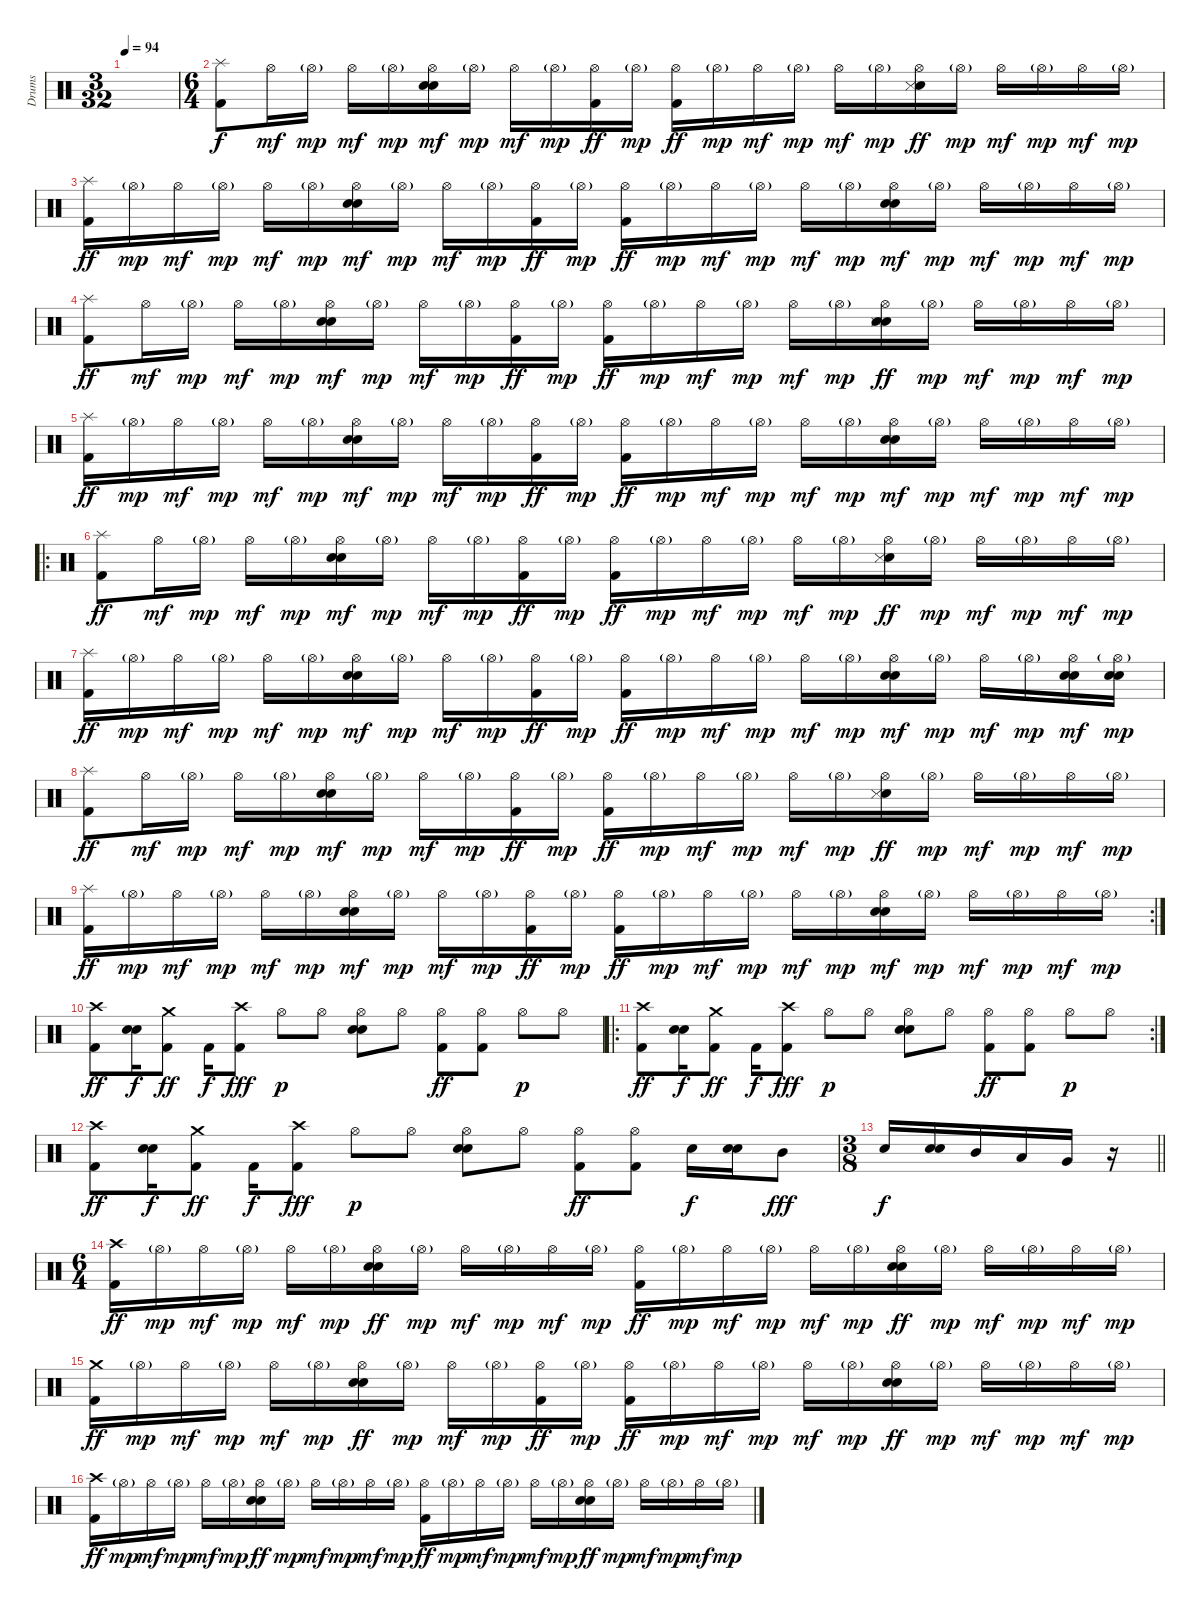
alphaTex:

\track ("Drums" "Drums") {instrument percussion}
\staff {score}
\articulation defaults
\ts (3 32)
\tempo 94
\clef neutral
\ks c
|
\ts (6 4)
("Splash (hit)" "Kick (hit) 2").8 "Hi-Hat (open)".16{dy mf} "Hi-Hat (open)"{g}.16{dy mp} "Hi-Hat (open)".16{dy mf} "Hi-Hat (open)"{g}.16{dy mp} ("Hi-Hat (open)" "Electric Snare (hit)" "Metronome (bell)").16{dy mf} "Hi-Hat (open)"{g}.16{dy mp} "Hi-Hat (open)".16{dy mf} "Hi-Hat (open)"{g}.16{dy mp} ("Hi-Hat (open)" "Kick (hit) 2").16{dy ff} "Hi-Hat (open)"{g}.16{dy mp} ("Hi-Hat (open)" "Kick (hit) 2").16{dy ff} "Hi-Hat (open)"{g}.16{dy mp} "Hi-Hat (open)".16{dy mf} "Hi-Hat (open)"{g}.16{dy mp} "Hi-Hat (open)".16{dy mf} "Hi-Hat (open)"{g}.16{dy mp} ("Hi-Hat (open)" "Electric Snare (hit)" "Metronome (hit)").16{dy ff} "Hi-Hat (open)"{g}.16{dy mp} "Hi-Hat (open)".16{dy mf} "Hi-Hat (open)"{g}.16{dy mp} "Hi-Hat (open)".16{dy mf} "Hi-Hat (open)"{g}.16{dy mp} |
("Splash (hit)" "Kick (hit) 2").16{dy ff} "Hi-Hat (open)"{g}.16{dy mp} "Hi-Hat (open)".16{dy mf} "Hi-Hat (open)"{g}.16{dy mp} "Hi-Hat (open)".16{dy mf} "Hi-Hat (open)"{g}.16{dy mp} ("Hi-Hat (open)" "Electric Snare (hit)" "Metronome (bell)").16{dy mf} "Hi-Hat (open)"{g}.16{dy mp} "Hi-Hat (open)".16{dy mf} "Hi-Hat (open)"{g}.16{dy mp} ("Hi-Hat (open)" "Kick (hit) 2").16{dy ff} "Hi-Hat (open)"{g}.16{dy mp} ("Hi-Hat (open)" "Kick (hit) 2").16{dy ff} "Hi-Hat (open)"{g}.16{dy mp} "Hi-Hat (open)".16{dy mf} "Hi-Hat (open)"{g}.16{dy mp} "Hi-Hat (open)".16{dy mf} "Hi-Hat (open)"{g}.16{dy mp} ("Hi-Hat (open)" "Electric Snare (hit)" "Metronome (bell)").16{dy mf} "Hi-Hat (open)"{g}.16{dy mp} "Hi-Hat (open)".16{dy mf} "Hi-Hat (open)"{g}.16{dy mp} "Hi-Hat (open)".16{dy mf} "Hi-Hat (open)"{g}.16{dy mp} |
("Splash (hit)" "Kick (hit) 2").8{dy ff} "Hi-Hat (open)".16{dy mf} "Hi-Hat (open)"{g}.16{dy mp} "Hi-Hat (open)".16{dy mf} "Hi-Hat (open)"{g}.16{dy mp} ("Hi-Hat (open)" "Electric Snare (hit)" "Metronome (bell)").16{dy mf} "Hi-Hat (open)"{g}.16{dy mp} "Hi-Hat (open)".16{dy mf} "Hi-Hat (open)"{g}.16{dy mp} ("Hi-Hat (open)" "Kick (hit) 2").16{dy ff} "Hi-Hat (open)"{g}.16{dy mp} ("Hi-Hat (open)" "Kick (hit) 2").16{dy ff} "Hi-Hat (open)"{g}.16{dy mp} "Hi-Hat (open)".16{dy mf} "Hi-Hat (open)"{g}.16{dy mp} "Hi-Hat (open)".16{dy mf} "Hi-Hat (open)"{g}.16{dy mp} ("Hi-Hat (open)" "Electric Snare (hit)" "Metronome (bell)" "Metronome (hit)").16{dy ff} "Hi-Hat (open)"{g}.16{dy mp} "Hi-Hat (open)".16{dy mf} "Hi-Hat (open)"{g}.16{dy mp} "Hi-Hat (open)".16{dy mf} "Hi-Hat (open)"{g}.16{dy mp} |
("Splash (hit)" "Kick (hit) 2").16{dy ff} "Hi-Hat (open)"{g}.16{dy mp} "Hi-Hat (open)".16{dy mf} "Hi-Hat (open)"{g}.16{dy mp} "Hi-Hat (open)".16{dy mf} "Hi-Hat (open)"{g}.16{dy mp} ("Hi-Hat (open)" "Electric Snare (hit)" "Metronome (bell)").16{dy mf} "Hi-Hat (open)"{g}.16{dy mp} "Hi-Hat (open)".16{dy mf} "Hi-Hat (open)"{g}.16{dy mp} ("Hi-Hat (open)" "Kick (hit) 2").16{dy ff} "Hi-Hat (open)"{g}.16{dy mp} ("Hi-Hat (open)" "Kick (hit) 2").16{dy ff} "Hi-Hat (open)"{g}.16{dy mp} "Hi-Hat (open)".16{dy mf} "Hi-Hat (open)"{g}.16{dy mp} "Hi-Hat (open)".16{dy mf} "Hi-Hat (open)"{g}.16{dy mp} ("Hi-Hat (open)" "Electric Snare (hit)" "Metronome (bell)").16{dy mf} "Hi-Hat (open)"{g}.16{dy mp} "Hi-Hat (open)".16{dy mf} "Hi-Hat (open)"{g}.16{dy mp} "Hi-Hat (open)".16{dy mf} "Hi-Hat (open)"{g}.16{dy mp} |
\ro
("Splash (hit)" "Kick (hit) 2").8{dy ff} "Hi-Hat (open)".16{dy mf} "Hi-Hat (open)"{g}.16{dy mp} "Hi-Hat (open)".16{dy mf} "Hi-Hat (open)"{g}.16{dy mp} ("Hi-Hat (open)" "Electric Snare (hit)" "Metronome (bell)").16{dy mf} "Hi-Hat (open)"{g}.16{dy mp} "Hi-Hat (open)".16{dy mf} "Hi-Hat (open)"{g}.16{dy mp} ("Hi-Hat (open)" "Kick (hit) 2").16{dy ff} "Hi-Hat (open)"{g}.16{dy mp} ("Hi-Hat (open)" "Kick (hit) 2").16{dy ff} "Hi-Hat (open)"{g}.16{dy mp} "Hi-Hat (open)".16{dy mf} "Hi-Hat (open)"{g}.16{dy mp} "Hi-Hat (open)".16{dy mf} "Hi-Hat (open)"{g}.16{dy mp} ("Hi-Hat (open)" "Electric Snare (hit)" "Metronome (hit)").16{dy ff} "Hi-Hat (open)"{g}.16{dy mp} "Hi-Hat (open)".16{dy mf} "Hi-Hat (open)"{g}.16{dy mp} "Hi-Hat (open)".16{dy mf} "Hi-Hat (open)"{g}.16{dy mp} |
("Splash (hit)" "Kick (hit) 2").16{dy ff} "Hi-Hat (open)"{g}.16{dy mp} "Hi-Hat (open)".16{dy mf} "Hi-Hat (open)"{g}.16{dy mp} "Hi-Hat (open)".16{dy mf} "Hi-Hat (open)"{g}.16{dy mp} ("Hi-Hat (open)" "Electric Snare (hit)" "Metronome (bell)").16{dy mf} "Hi-Hat (open)"{g}.16{dy mp} "Hi-Hat (open)".16{dy mf} "Hi-Hat (open)"{g}.16{dy mp} ("Hi-Hat (open)" "Kick (hit) 2").16{dy ff} "Hi-Hat (open)"{g}.16{dy mp} ("Hi-Hat (open)" "Kick (hit) 2").16{dy ff} "Hi-Hat (open)"{g}.16{dy mp} "Hi-Hat (open)".16{dy mf} "Hi-Hat (open)"{g}.16{dy mp} "Hi-Hat (open)".16{dy mf} "Hi-Hat (open)"{g}.16{dy mp} ("Hi-Hat (open)" "Electric Snare (hit)" "Metronome (bell)").16{dy mf} "Hi-Hat (open)"{g}.16{dy mp} "Hi-Hat (open)".16{dy mf} "Hi-Hat (open)"{g}.16{dy mp} ("Hi-Hat (open)" "Electric Snare (hit)" "Metronome (bell)").16{dy mf} ("Hi-Hat (open)"{g} "Electric Snare (hit)" "Metronome (bell)").16{dy mp} |
("Splash (hit)" "Kick (hit) 2").8{dy ff} "Hi-Hat (open)".16{dy mf} "Hi-Hat (open)"{g}.16{dy mp} "Hi-Hat (open)".16{dy mf} "Hi-Hat (open)"{g}.16{dy mp} ("Hi-Hat (open)" "Electric Snare (hit)" "Metronome (bell)").16{dy mf} "Hi-Hat (open)"{g}.16{dy mp} "Hi-Hat (open)".16{dy mf} "Hi-Hat (open)"{g}.16{dy mp} ("Hi-Hat (open)" "Kick (hit) 2").16{dy ff} "Hi-Hat (open)"{g}.16{dy mp} ("Hi-Hat (open)" "Kick (hit) 2").16{dy ff} "Hi-Hat (open)"{g}.16{dy mp} "Hi-Hat (open)".16{dy mf} "Hi-Hat (open)"{g}.16{dy mp} "Hi-Hat (open)".16{dy mf} "Hi-Hat (open)"{g}.16{dy mp} ("Hi-Hat (open)" "Electric Snare (hit)" "Metronome (hit)").16{dy ff} "Hi-Hat (open)"{g}.16{dy mp} "Hi-Hat (open)".16{dy mf} "Hi-Hat (open)"{g}.16{dy mp} "Hi-Hat (open)".16{dy mf} "Hi-Hat (open)"{g}.16{dy mp} |
\rc 2
("Splash (hit)" "Kick (hit) 2").16{dy ff} "Hi-Hat (open)"{g}.16{dy mp} "Hi-Hat (open)".16{dy mf} "Hi-Hat (open)"{g}.16{dy mp} "Hi-Hat (open)".16{dy mf} "Hi-Hat (open)"{g}.16{dy mp} ("Hi-Hat (open)" "Electric Snare (hit)" "Metronome (bell)").16{dy mf} "Hi-Hat (open)"{g}.16{dy mp} "Hi-Hat (open)".16{dy mf} "Hi-Hat (open)"{g}.16{dy mp} ("Hi-Hat (open)" "Kick (hit) 2").16{dy ff} "Hi-Hat (open)"{g}.16{dy mp} ("Hi-Hat (open)" "Kick (hit) 2").16{dy ff} "Hi-Hat (open)"{g}.16{dy mp} "Hi-Hat (open)".16{dy mf} "Hi-Hat (open)"{g}.16{dy mp} "Hi-Hat (open)".16{dy mf} "Hi-Hat (open)"{g}.16{dy mp} ("Hi-Hat (open)" "Electric Snare (hit)" "Metronome (bell)").16{dy mf} "Hi-Hat (open)"{g}.16{dy mp} "Hi-Hat (open)".16{dy mf} "Hi-Hat (open)"{g}.16{dy mp} "Hi-Hat (open)".16{dy mf} "Hi-Hat (open)"{g}.16{dy mp} |
("Crash high (hit)" "Kick (hit) 2").8{dy ff} ("Electric Snare (hit)" "Metronome (bell)").16{dy f} ("Crash medium (hit)" "Kick (hit) 2").8{dy ff} "Kick (hit) 2".16{dy f} ("Crash high (hit)" "Kick (hit) 2").8{dy fff} "Hi-Hat (open)".8{dy p} "Hi-Hat (open)".8 ("Hi-Hat (open)" "Electric Snare (hit)" "Metronome (bell)").8 "Hi-Hat (open)".8 ("Hi-Hat (open)" "Kick (hit) 2").8{dy ff} ("Hi-Hat (open)" "Kick (hit) 2").8 "Hi-Hat (open)".8{dy p} "Hi-Hat (open)".8 |
\ro
\rc 2
("Crash high (hit)" "Kick (hit) 2").8{dy ff} ("Electric Snare (hit)" "Metronome (bell)").16{dy f} ("Crash medium (hit)" "Kick (hit) 2").8{dy ff} "Kick (hit) 2".16{dy f} ("Crash high (hit)" "Kick (hit) 2").8{dy fff} "Hi-Hat (open)".8{dy p} "Hi-Hat (open)".8 ("Hi-Hat (open)" "Electric Snare (hit)" "Metronome (bell)").8 "Hi-Hat (open)".8 ("Hi-Hat (open)" "Kick (hit) 2").8{dy ff} ("Hi-Hat (open)" "Kick (hit) 2").8 "Hi-Hat (open)".8{dy p} "Hi-Hat (open)".8 |
("Crash high (hit)" "Kick (hit) 2").8{dy ff} ("Electric Snare (hit)" "Metronome (bell)").16{dy f} ("Crash medium (hit)" "Kick (hit) 2").8{dy ff} "Kick (hit) 2".16{dy f} ("Crash high (hit)" "Kick (hit) 2").8{dy fff} "Hi-Hat (open)".8{dy p} "Hi-Hat (open)".8 ("Hi-Hat (open)" "Electric Snare (hit)" "Metronome (bell)").8 "Hi-Hat (open)".8 ("Hi-Hat (open)" "Kick (hit) 2").8{dy ff} ("Hi-Hat (open)" "Kick (hit) 2").8 "Electric Snare (hit)".16{dy f} ("Electric Snare (hit)" "Metronome (bell)").16 "Mid Tom (hit)".8{dy fff} |
\ts (3 8)
\barLineRight lightlight "Electric Snare (hit)".16{dy f}
("Electric Snare (hit)" "Metronome (bell)").16 "Mid Tom (hit)".16 "Low Tom (hit)".16 "Very Low Tom (hit)".16 r.16 |
\ts (6 4)
("Crash high (hit)" "Kick (hit) 2").16{dy ff} "Hi-Hat (open)"{g}.16{dy mp} "Hi-Hat (open)".16{dy mf} "Hi-Hat (open)"{g}.16{dy mp} "Hi-Hat (open)".16{dy mf} "Hi-Hat (open)"{g}.16{dy mp} ("Hi-Hat (open)" "Electric Snare (hit)" "Metronome (bell)").16{dy ff} "Hi-Hat (open)"{g}.16{dy mp} "Hi-Hat (open)".16{dy mf} "Hi-Hat (open)"{g}.16{dy mp} "Hi-Hat (open)".16{dy mf} "Hi-Hat (open)"{g}.16{dy mp} ("Hi-Hat (open)" "Kick (hit) 2").16{dy ff} "Hi-Hat (open)"{g}.16{dy mp} "Hi-Hat (open)".16{dy mf} "Hi-Hat (open)"{g}.16{dy mp} "Hi-Hat (open)".16{dy mf} "Hi-Hat (open)"{g}.16{dy mp} ("Hi-Hat (open)" "Electric Snare (hit)" "Metronome (bell)").16{dy ff} "Hi-Hat (open)"{g}.16{dy mp} "Hi-Hat (open)".16{dy mf} "Hi-Hat (open)"{g}.16{dy mp} "Hi-Hat (open)".16{dy mf} "Hi-Hat (open)"{g}.16{dy mp} |
("Crash medium (hit)" "Kick (hit) 2").16{dy ff} "Hi-Hat (open)"{g}.16{dy mp} "Hi-Hat (open)".16{dy mf} "Hi-Hat (open)"{g}.16{dy mp} "Hi-Hat (open)".16{dy mf} "Hi-Hat (open)"{g}.16{dy mp} ("Hi-Hat (open)" "Electric Snare (hit)" "Metronome (bell)").16{dy ff} "Hi-Hat (open)"{g}.16{dy mp} "Hi-Hat (open)".16{dy mf} "Hi-Hat (open)"{g}.16{dy mp} ("Hi-Hat (open)" "Kick (hit) 2").16{dy ff} "Hi-Hat (open)"{g}.16{dy mp} ("Hi-Hat (open)" "Kick (hit) 2").16{dy ff} "Hi-Hat (open)"{g}.16{dy mp} "Hi-Hat (open)".16{dy mf} "Hi-Hat (open)"{g}.16{dy mp} "Hi-Hat (open)".16{dy mf} "Hi-Hat (open)"{g}.16{dy mp} ("Hi-Hat (open)" "Electric Snare (hit)" "Metronome (bell)").16{dy ff} "Hi-Hat (open)"{g}.16{dy mp} "Hi-Hat (open)".16{dy mf} "Hi-Hat (open)"{g}.16{dy mp} "Hi-Hat (open)".16{dy mf} "Hi-Hat (open)"{g}.16{dy mp} |
("Crash high (hit)" "Kick (hit) 2").16{dy ff} "Hi-Hat (open)"{g}.16{dy mp} "Hi-Hat (open)".16{dy mf} "Hi-Hat (open)"{g}.16{dy mp} "Hi-Hat (open)".16{dy mf} "Hi-Hat (open)"{g}.16{dy mp} ("Hi-Hat (open)" "Electric Snare (hit)" "Metronome (bell)").16{dy ff} "Hi-Hat (open)"{g}.16{dy mp} "Hi-Hat (open)".16{dy mf} "Hi-Hat (open)"{g}.16{dy mp} "Hi-Hat (open)".16{dy mf} "Hi-Hat (open)"{g}.16{dy mp} ("Hi-Hat (open)" "Kick (hit) 2").16{dy ff} "Hi-Hat (open)"{g}.16{dy mp} "Hi-Hat (open)".16{dy mf} "Hi-Hat (open)"{g}.16{dy mp} "Hi-Hat (open)".16{dy mf} "Hi-Hat (open)"{g}.16{dy mp} ("Hi-Hat (open)" "Electric Snare (hit)" "Metronome (bell)").16{dy ff} "Hi-Hat (open)"{g}.16{dy mp} "Hi-Hat (open)".16{dy mf} "Hi-Hat (open)"{g}.16{dy mp} "Hi-Hat (open)".16{dy mf} "Hi-Hat (open)"{g}.16{dy mp}
